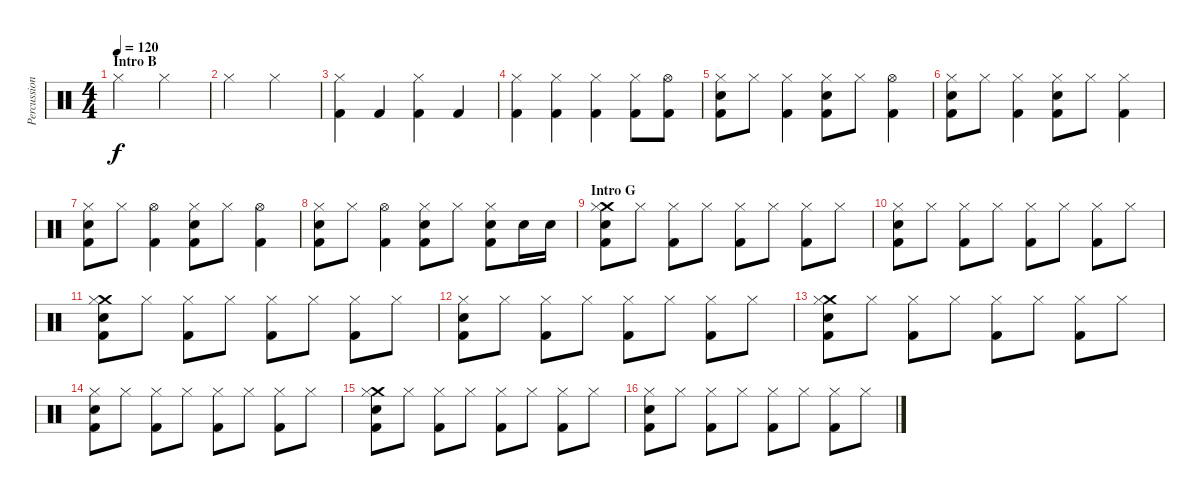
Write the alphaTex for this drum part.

\track ("Percussions" "Percussion") {instrument percussion}
\staff {score}
\articulation defaults
\ts (4 4)
\section ("" "Intro B")
\tempo 120
\clef neutral
\ks c "Hi-Hat (closed)".2{dy f} "Hi-Hat (closed)".2
|
"Hi-Hat (closed)".2 "Hi-Hat (closed)".2 |
("Hi-Hat (closed)" "Kick (hit) 2").4 "Kick (hit) 2".4 ("Hi-Hat (closed)" "Kick (hit) 2").4 "Kick (hit) 2".4 |
("Hi-Hat (closed)" "Kick (hit) 2").4 ("Hi-Hat (closed)" "Kick (hit) 2").4 ("Hi-Hat (closed)" "Kick (hit) 2").4 ("Hi-Hat (closed)" "Kick (hit) 2").8 ("Hi-Hat (open)" "Kick (hit) 2").8 |
("Hi-Hat (closed)" "Kick (hit) 2" "Snare (hit) 2").8 "Hi-Hat (closed)".8 ("Hi-Hat (closed)" "Kick (hit) 2").4 ("Hi-Hat (closed)" "Kick (hit) 2" "Snare (hit) 2").8 "Hi-Hat (closed)".8 ("Hi-Hat (open)" "Kick (hit) 2").4 |
("Hi-Hat (closed)" "Kick (hit) 2" "Snare (hit) 2").8 "Hi-Hat (closed)".8 ("Hi-Hat (closed)" "Kick (hit) 2").4 ("Hi-Hat (closed)" "Kick (hit) 2" "Snare (hit) 2").8 "Hi-Hat (closed)".8 ("Hi-Hat (closed)" "Kick (hit) 2").4 |
("Hi-Hat (closed)" "Kick (hit) 2" "Snare (hit) 2").8 "Hi-Hat (closed)".8 ("Hi-Hat (open)" "Kick (hit) 2").4 ("Hi-Hat (closed)" "Kick (hit) 2" "Snare (hit) 2").8 "Hi-Hat (closed)".8 ("Hi-Hat (open)" "Kick (hit) 2").4 |
("Hi-Hat (closed)" "Kick (hit) 2" "Snare (hit) 2").8 "Hi-Hat (closed)".8 ("Hi-Hat (open)" "Kick (hit) 2").4 ("Hi-Hat (closed)" "Kick (hit) 2" "Snare (hit) 2").8 "Hi-Hat (closed)".8 ("Hi-Hat (closed)" "Kick (hit) 2" "Snare (hit) 2").8 "Snare (hit) 2".16 "Snare (hit) 2".16 |
\section ("" "Intro G")
("Crash medium (hit)" "Hi-Hat (closed)" "Kick (hit) 2" "Electric Snare (hit)").8 "Hi-Hat (closed)".8 ("Hi-Hat (closed)" "Kick (hit) 2").8 "Hi-Hat (closed)".8 ("Hi-Hat (closed)" "Kick (hit) 2").8 "Hi-Hat (closed)".8 ("Hi-Hat (closed)" "Kick (hit) 2").8 "Hi-Hat (closed)".8 |
("Hi-Hat (closed)" "Kick (hit) 2" "Electric Snare (hit)").8 "Hi-Hat (closed)".8 ("Hi-Hat (closed)" "Kick (hit) 2").8 "Hi-Hat (closed)".8 ("Hi-Hat (closed)" "Kick (hit) 2").8 "Hi-Hat (closed)".8 ("Hi-Hat (closed)" "Kick (hit) 2").8 "Hi-Hat (closed)".8 |
("Crash medium (hit)" "Hi-Hat (closed)" "Kick (hit) 2" "Electric Snare (hit)").8 "Hi-Hat (closed)".8 ("Hi-Hat (closed)" "Kick (hit) 2").8 "Hi-Hat (closed)".8 ("Hi-Hat (closed)" "Kick (hit) 2").8 "Hi-Hat (closed)".8 ("Hi-Hat (closed)" "Kick (hit) 2").8 "Hi-Hat (closed)".8 |
("Hi-Hat (closed)" "Kick (hit) 2" "Electric Snare (hit)").8 "Hi-Hat (closed)".8 ("Hi-Hat (closed)" "Kick (hit) 2").8 "Hi-Hat (closed)".8 ("Hi-Hat (closed)" "Kick (hit) 2").8 "Hi-Hat (closed)".8 ("Hi-Hat (closed)" "Kick (hit) 2").8 "Hi-Hat (closed)".8 |
("Crash medium (hit)" "Hi-Hat (closed)" "Kick (hit) 2" "Electric Snare (hit)").8 "Hi-Hat (closed)".8 ("Hi-Hat (closed)" "Kick (hit) 2").8 "Hi-Hat (closed)".8 ("Hi-Hat (closed)" "Kick (hit) 2").8 "Hi-Hat (closed)".8 ("Hi-Hat (closed)" "Kick (hit) 2").8 "Hi-Hat (closed)".8 |
("Hi-Hat (closed)" "Kick (hit) 2" "Electric Snare (hit)").8 "Hi-Hat (closed)".8 ("Hi-Hat (closed)" "Kick (hit) 2").8 "Hi-Hat (closed)".8 ("Hi-Hat (closed)" "Kick (hit) 2").8 "Hi-Hat (closed)".8 ("Hi-Hat (closed)" "Kick (hit) 2").8 "Hi-Hat (closed)".8 |
("Crash medium (hit)" "Hi-Hat (closed)" "Kick (hit) 2" "Electric Snare (hit)").8 "Hi-Hat (closed)".8 ("Hi-Hat (closed)" "Kick (hit) 2").8 "Hi-Hat (closed)".8 ("Hi-Hat (closed)" "Kick (hit) 2").8 "Hi-Hat (closed)".8 ("Hi-Hat (closed)" "Kick (hit) 2").8 "Hi-Hat (closed)".8 |
("Hi-Hat (closed)" "Kick (hit) 2" "Electric Snare (hit)").8 "Hi-Hat (closed)".8 ("Hi-Hat (closed)" "Kick (hit) 2").8 "Hi-Hat (closed)".8 ("Hi-Hat (closed)" "Kick (hit) 2").8 "Hi-Hat (closed)".8 ("Hi-Hat (closed)" "Kick (hit) 2").8 "Hi-Hat (closed)".8
